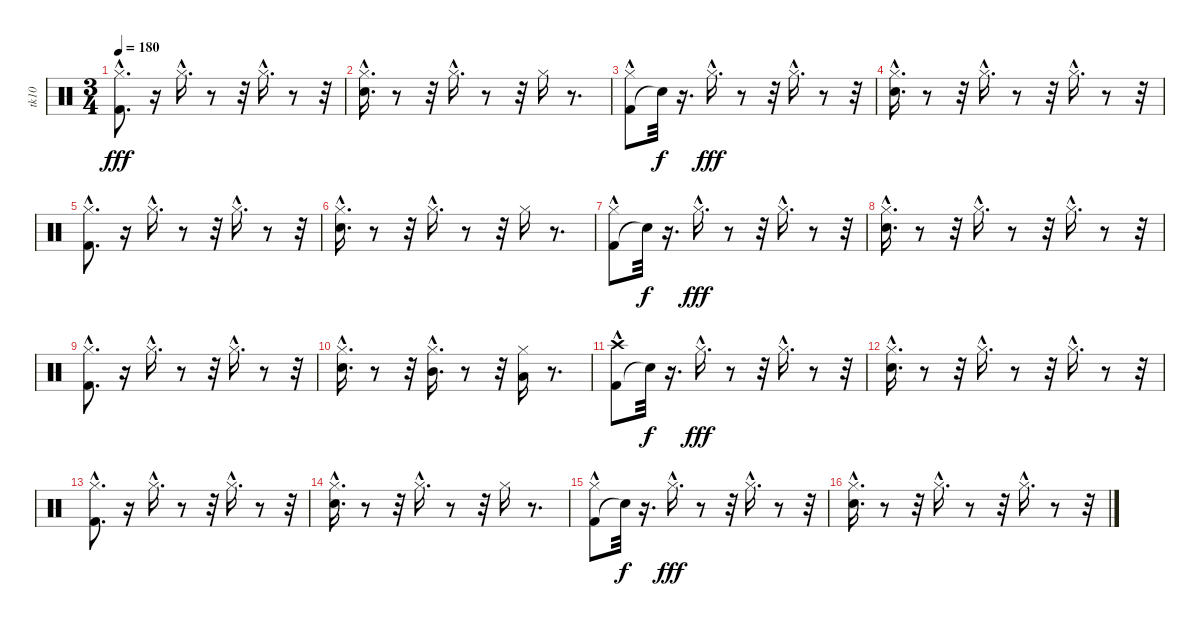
\track ("tk10" "tk10") {instrument percussion}
\staff {score}
\articulation defaults
\ts (3 4)
\tempo 180
\clef neutral
\ks c
("Kick (hit) 2"{hac} "Hi-Hat (closed)"{hac}).8{d dy fff} r.16 "Hi-Hat (closed)"{hac}.16{d} r.8 r.32 "Hi-Hat (closed)"{hac}.16{d} r.8 r.32 |
("Snare (hit) 2"{hac} "Hi-Hat (closed)"{hac}).16{d} r.8 r.32 "Hi-Hat (closed)"{hac}.16{d} r.8 r.32 "Hi-Hat (closed)".16 r.8{d} |
("Kick (hit) 2" "Hi-Hat (closed)"{hac}).8 "Snare (hit)"{t}.32{dy f} r.16{d} "Hi-Hat (closed)"{hac}.16{d dy fff} r.8 r.32 "Hi-Hat (closed)"{hac}.16{d} r.8 r.32 |
("Snare (hit) 2"{hac} "Hi-Hat (closed)"{hac}).16{d} r.8 r.32 "Hi-Hat (closed)"{hac}.16{d} r.8 r.32 "Hi-Hat (closed)"{hac}.16{d} r.8 r.32 |
("Kick (hit) 2"{hac} "Hi-Hat (closed)"{hac}).8{d} r.16 "Hi-Hat (closed)"{hac}.16{d} r.8 r.32 "Hi-Hat (closed)"{hac}.16{d} r.8 r.32 |
("Snare (hit) 2"{hac} "Hi-Hat (closed)"{hac}).16{d} r.8 r.32 "Hi-Hat (closed)"{hac}.16{d} r.8 r.32 "Hi-Hat (closed)".16 r.8{d} |
("Kick (hit) 2" "Hi-Hat (closed)"{hac}).8 "Snare (hit)"{t}.32{dy f} r.16{d} "Hi-Hat (closed)"{hac}.16{d dy fff} r.8 r.32 "Hi-Hat (closed)"{hac}.16{d} r.8 r.32 |
("Snare (hit) 2"{hac} "Hi-Hat (closed)"{hac}).16{d} r.8 r.32 "Hi-Hat (closed)"{hac}.16{d} r.8 r.32 "Hi-Hat (closed)"{hac}.16{d} r.8 r.32 |
("Kick (hit) 2"{hac} "Hi-Hat (closed)"{hac}).8{d} r.16 "Hi-Hat (closed)"{hac}.16{d} r.8 r.32 "Hi-Hat (closed)"{hac}.16{d} r.8 r.32 |
("Snare (hit) 2"{hac} "Hi-Hat (closed)"{hac}).16{d} r.8 r.32 ("Mid Tom (hit)"{hac} "Hi-Hat (closed)"{hac}).16{d} r.8 r.32 ("Low Tom (hit)" "Hi-Hat (closed)").16 r.8{d} |
("Kick (hit) 2" "Crash high (hit)"{hac}).8 "Snare (hit)"{t}.32{dy f} r.16{d} "Hi-Hat (closed)"{hac}.16{d dy fff} r.8 r.32 "Hi-Hat (closed)"{hac}.16{d} r.8 r.32 |
("Snare (hit) 2"{hac} "Hi-Hat (closed)"{hac}).16{d} r.8 r.32 "Hi-Hat (closed)"{hac}.16{d} r.8 r.32 "Hi-Hat (closed)"{hac}.16{d} r.8 r.32 |
("Kick (hit) 2"{hac} "Hi-Hat (closed)"{hac}).8{d} r.16 "Hi-Hat (closed)"{hac}.16{d} r.8 r.32 "Hi-Hat (closed)"{hac}.16{d} r.8 r.32 |
("Snare (hit) 2"{hac} "Hi-Hat (closed)"{hac}).16{d} r.8 r.32 "Hi-Hat (closed)"{hac}.16{d} r.8 r.32 "Hi-Hat (closed)".16 r.8{d} |
("Kick (hit) 2" "Hi-Hat (closed)"{hac}).8 "Snare (hit)"{t}.32{dy f} r.16{d} "Hi-Hat (closed)"{hac}.16{d dy fff} r.8 r.32 "Hi-Hat (closed)"{hac}.16{d} r.8 r.32 |
("Snare (hit) 2"{hac} "Hi-Hat (closed)"{hac}).16{d} r.8 r.32 "Hi-Hat (closed)"{hac}.16{d} r.8 r.32 "Hi-Hat (closed)"{hac}.16{d} r.8 r.32
